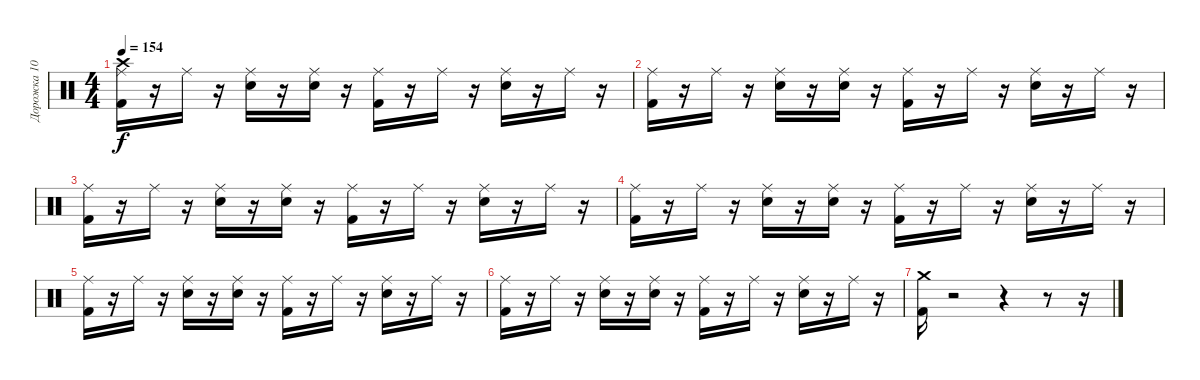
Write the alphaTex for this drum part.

\track ("Дорожка 10" "Дорожка 10") {instrument percussion}
\staff {score}
\articulation defaults
\ts (4 4)
\tempo 154
\clef neutral
\ks c
("Ride (middle)" "Crash high (hit)" "Kick (hit) 2").16{dy f} r.16 "Ride (middle)".16 r.16 ("Ride (middle)" "Electric Snare (hit)").16 r.16 ("Ride (middle)" "Electric Snare (hit)").16 r.16 ("Ride (middle)" "Kick (hit) 2").16 r.16 "Ride (middle)".16 r.16 ("Ride (middle)" "Electric Snare (hit)").16 r.16 "Ride (middle)".16 r.16 |
("Ride (middle)" "Kick (hit) 2").16 r.16 "Ride (middle)".16 r.16 ("Ride (middle)" "Electric Snare (hit)").16 r.16 ("Ride (middle)" "Electric Snare (hit)").16 r.16 ("Ride (middle)" "Kick (hit) 2").16 r.16 "Ride (middle)".16 r.16 ("Ride (middle)" "Electric Snare (hit)").16 r.16 "Ride (middle)".16 r.16 |
("Ride (middle)" "Kick (hit) 2").16 r.16 "Ride (middle)".16 r.16 ("Ride (middle)" "Electric Snare (hit)").16 r.16 ("Ride (middle)" "Electric Snare (hit)").16 r.16 ("Ride (middle)" "Kick (hit) 2").16 r.16 "Ride (middle)".16 r.16 ("Ride (middle)" "Electric Snare (hit)").16 r.16 "Ride (middle)".16 r.16 |
("Ride (middle)" "Kick (hit) 2").16 r.16 "Ride (middle)".16 r.16 ("Ride (middle)" "Electric Snare (hit)").16 r.16 ("Ride (middle)" "Electric Snare (hit)").16 r.16 ("Ride (middle)" "Kick (hit) 2").16 r.16 "Ride (middle)".16 r.16 ("Ride (middle)" "Electric Snare (hit)").16 r.16 "Ride (middle)".16 r.16 |
("Ride (middle)" "Kick (hit) 2").16 r.16 "Ride (middle)".16 r.16 ("Ride (middle)" "Electric Snare (hit)").16 r.16 ("Ride (middle)" "Electric Snare (hit)").16 r.16 ("Ride (middle)" "Kick (hit) 2").16 r.16 "Ride (middle)".16 r.16 ("Ride (middle)" "Electric Snare (hit)").16 r.16 "Ride (middle)".16 r.16 |
("Ride (middle)" "Kick (hit) 2").16 r.16 "Ride (middle)".16 r.16 ("Ride (middle)" "Electric Snare (hit)").16 r.16 ("Ride (middle)" "Electric Snare (hit)").16 r.16 ("Ride (middle)" "Kick (hit) 2").16 r.16 "Ride (middle)".16 r.16 ("Ride (middle)" "Electric Snare (hit)").16 r.16 "Ride (middle)".16 r.16 |
("Crash medium (hit)" "Kick (hit) 2").16 r.2 r.4 r.8 r.16
